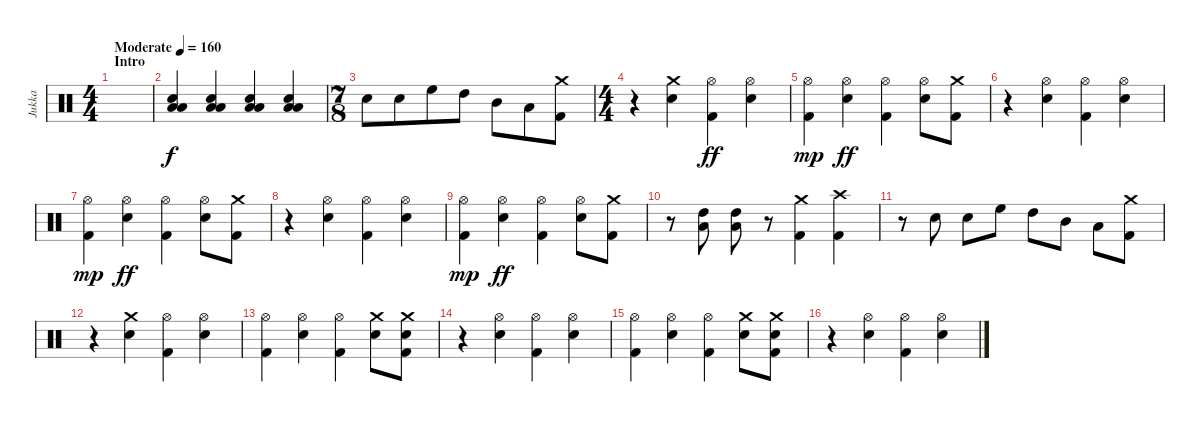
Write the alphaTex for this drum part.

\track ("Jukka" "Jukka") {instrument percussion}
\staff {score}
\articulation defaults
\ts (4 4)
\section ("" "Intro")
\tempo (160 "Moderate")
\clef neutral
\ks c
|
("Low Floor Tom (hit)" "Snare (hit) 2" "Low Tom (hit)").4 ("Low Floor Tom (hit)" "Snare (hit) 2" "Low Tom (hit)").4 ("Low Floor Tom (hit)" "Snare (hit) 2" "Low Tom (hit)").4 ("Low Floor Tom (hit)" "Snare (hit) 2" "Low Tom (hit)").4 |
\ts (7 8)
"Snare (hit) 2".8 "Snare (hit) 2".8 "High Floor Tom (hit)".8 "High Tom (hit)".8 "Mid Tom (hit)".8 "Low Tom (hit)".8 ("Crash medium (hit)" "Kick (hit) 2").8 |
\ts (4 4)
r.4 ("Crash medium (hit)" "Snare (hit) 2").4{dy f} ("Hi-Hat (open)" "Kick (hit) 2").4{dy ff} ("Hi-Hat (open)" "Snare (hit) 2").4 |
("Hi-Hat (open)" "Kick (hit) 2").4{dy mp} ("Hi-Hat (open)" "Snare (hit) 2").4{dy ff} ("Hi-Hat (open)" "Kick (hit) 2").4 ("Hi-Hat (open)" "Snare (hit) 2").8 ("Crash medium (hit)" "Kick (hit) 2").8 |
r.4 ("Hi-Hat (open)" "Snare (hit) 2").4 ("Hi-Hat (open)" "Kick (hit) 2").4 ("Hi-Hat (open)" "Snare (hit) 2").4 |
("Hi-Hat (open)" "Kick (hit) 2").4{dy mp} ("Hi-Hat (open)" "Snare (hit) 2").4{dy ff} ("Hi-Hat (open)" "Kick (hit) 2").4 ("Hi-Hat (open)" "Snare (hit) 2").8 ("Crash medium (hit)" "Kick (hit) 2").8 |
r.4 ("Hi-Hat (open)" "Snare (hit) 2").4 ("Hi-Hat (open)" "Kick (hit) 2").4 ("Hi-Hat (open)" "Snare (hit) 2").4 |
("Hi-Hat (open)" "Kick (hit) 2").4{dy mp} ("Hi-Hat (open)" "Snare (hit) 2").4{dy ff} ("Hi-Hat (open)" "Kick (hit) 2").4 ("Hi-Hat (open)" "Snare (hit) 2").8 ("Crash medium (hit)" "Kick (hit) 2").8 |
r.8 ("High Tom (hit)" "Low Tom (hit)").8 ("High Tom (hit)" "Low Tom (hit)").8 r.8 ("Crash medium (hit)" "Kick (hit) 2").4 ("Crash high (hit)" "Kick (hit) 2").4 |
r.8 "Snare (hit) 2".8 "Snare (hit) 2".8 "High Floor Tom (hit)".8 "High Tom (hit)".8 "Mid Tom (hit)".8 "Low Tom (hit)".8 ("Crash medium (hit)" "Kick (hit) 2").8 |
r.4 ("Crash medium (hit)" "Snare (hit) 2").4 ("Hi-Hat (open)" "Kick (hit) 2").4 ("Hi-Hat (open)" "Snare (hit) 2").4 |
("Hi-Hat (open)" "Kick (hit) 2").4 ("Hi-Hat (open)" "Snare (hit) 2").4 ("Hi-Hat (open)" "Kick (hit) 2").4 ("Crash medium (hit)" "Snare (hit) 2").8 ("Crash medium (hit)" "Snare (hit) 2" "Kick (hit) 2").8 |
r.4 ("Hi-Hat (open)" "Snare (hit) 2").4 ("Hi-Hat (open)" "Kick (hit) 2").4 ("Hi-Hat (open)" "Snare (hit) 2").4 |
("Hi-Hat (open)" "Kick (hit) 2").4 ("Hi-Hat (open)" "Snare (hit) 2").4 ("Hi-Hat (open)" "Kick (hit) 2").4 ("Crash medium (hit)" "Snare (hit) 2").8 ("Crash medium (hit)" "Snare (hit) 2" "Kick (hit) 2").8 |
r.4 ("Hi-Hat (open)" "Snare (hit) 2").4 ("Hi-Hat (open)" "Kick (hit) 2").4 ("Hi-Hat (open)" "Snare (hit) 2").4
